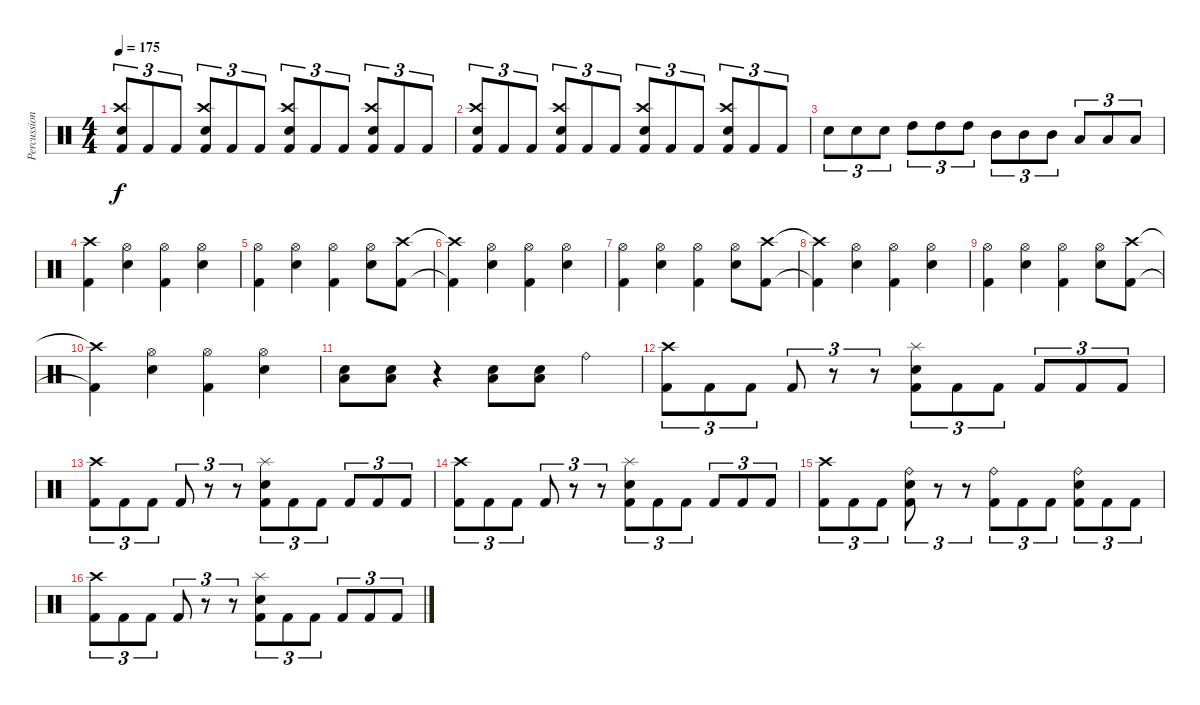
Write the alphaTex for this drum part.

\track ("Percussion" "Percussion") {instrument percussion}
\staff {score}
\articulation defaults
\ts (4 4)
\tempo 175
\clef neutral
\ks c
("Kick (hit) 2" "Crash high (hit)" "Electric Snare (hit)").8{tu (3 2) dy f} "Kick (hit) 2".8{tu (3 2)} "Kick (hit) 2".8{tu (3 2)} ("Kick (hit) 2" "Crash high (hit)" "Electric Snare (hit)").8{tu (3 2)} "Kick (hit) 2".8{tu (3 2)} "Kick (hit) 2".8{tu (3 2)} ("Kick (hit) 2" "Crash high (hit)" "Electric Snare (hit)").8{tu (3 2)} "Kick (hit) 2".8{tu (3 2)} "Kick (hit) 2".8{tu (3 2)} ("Kick (hit) 2" "Crash high (hit)" "Electric Snare (hit)").8{tu (3 2)} "Kick (hit) 2".8{tu (3 2)} "Kick (hit) 2".8{tu (3 2)} |
("Kick (hit) 2" "Crash high (hit)" "Electric Snare (hit)").8{tu (3 2)} "Kick (hit) 2".8{tu (3 2)} "Kick (hit) 2".8{tu (3 2)} ("Kick (hit) 2" "Crash high (hit)" "Electric Snare (hit)").8{tu (3 2)} "Kick (hit) 2".8{tu (3 2)} "Kick (hit) 2".8{tu (3 2)} ("Kick (hit) 2" "Crash high (hit)" "Electric Snare (hit)").8{tu (3 2)} "Kick (hit) 2".8{tu (3 2)} "Kick (hit) 2".8{tu (3 2)} ("Kick (hit) 2" "Crash high (hit)" "Electric Snare (hit)").8{tu (3 2)} "Kick (hit) 2".8{tu (3 2)} "Kick (hit) 2".8{tu (3 2)} |
"Electric Snare (hit)".8{tu (3 2)} "Electric Snare (hit)".8{tu (3 2)} "Electric Snare (hit)".8{tu (3 2)} "High Tom (hit)".8{tu (3 2)} "High Tom (hit)".8{tu (3 2)} "High Tom (hit)".8{tu (3 2)} "Mid Tom (hit)".8{tu (3 2)} "Mid Tom (hit)".8{tu (3 2)} "Mid Tom (hit)".8{tu (3 2)} "Low Tom (hit)".8{tu (3 2)} "Low Tom (hit)".8{tu (3 2)} "Low Tom (hit)".8{tu (3 2)} |
("Kick (hit) 2" "Crash high (hit)").4 ("Hi-Hat (open)" "Electric Snare (hit)").4 ("Hi-Hat (open)" "Kick (hit) 2").4 ("Hi-Hat (open)" "Electric Snare (hit)").4 |
("Hi-Hat (open)" "Kick (hit) 2").4 ("Hi-Hat (open)" "Electric Snare (hit)").4 ("Hi-Hat (open)" "Kick (hit) 2").4 ("Hi-Hat (open)" "Electric Snare (hit)").8 ("Kick (hit) 2" "Crash high (hit)").8 |
("Kick (hit) 2"{t} "Crash high (hit)"{t}).4 ("Hi-Hat (open)" "Electric Snare (hit)").4 ("Hi-Hat (open)" "Kick (hit) 2").4 ("Hi-Hat (open)" "Electric Snare (hit)").4 |
("Hi-Hat (open)" "Kick (hit) 2").4 ("Hi-Hat (open)" "Electric Snare (hit)").4 ("Hi-Hat (open)" "Kick (hit) 2").4 ("Hi-Hat (open)" "Electric Snare (hit)").8 ("Kick (hit) 2" "Crash high (hit)").8 |
("Kick (hit) 2"{t} "Crash high (hit)"{t}).4 ("Hi-Hat (open)" "Electric Snare (hit)").4 ("Hi-Hat (open)" "Kick (hit) 2").4 ("Hi-Hat (open)" "Electric Snare (hit)").4 |
("Hi-Hat (open)" "Kick (hit) 2").4 ("Hi-Hat (open)" "Electric Snare (hit)").4 ("Hi-Hat (open)" "Kick (hit) 2").4 ("Hi-Hat (open)" "Electric Snare (hit)").8 ("Kick (hit) 2" "Crash high (hit)").8 |
("Kick (hit) 2"{t} "Crash high (hit)"{t}).4 ("Hi-Hat (open)" "Electric Snare (hit)").4 ("Hi-Hat (open)" "Kick (hit) 2").4 ("Hi-Hat (open)" "Electric Snare (hit)").4 |
("Electric Snare (hit)" "Low Floor Tom (hit)").8 ("Electric Snare (hit)" "Low Floor Tom (hit)").8 r.4 ("Electric Snare (hit)" "Low Floor Tom (hit)").8 ("Electric Snare (hit)" "Low Floor Tom (hit)").8 "Ride (bell)".4 |
("Kick (hit) 2" "Crash high (hit)").8{tu (3 2)} "Kick (hit) 2".8{tu (3 2)} "Kick (hit) 2".8{tu (3 2)} "Kick (hit) 2".8{tu (3 2)} r.8{tu (3 2)} r.8{tu (3 2)} ("Splash (hit)" "Kick (hit) 2" "Electric Snare (hit)").8{tu (3 2)} "Kick (hit) 2".8{tu (3 2)} "Kick (hit) 2".8{tu (3 2)} "Kick (hit) 2".8{tu (3 2)} "Kick (hit) 2".8{tu (3 2)} "Kick (hit) 2".8{tu (3 2)} |
("Kick (hit) 2" "Crash high (hit)").8{tu (3 2)} "Kick (hit) 2".8{tu (3 2)} "Kick (hit) 2".8{tu (3 2)} "Kick (hit) 2".8{tu (3 2)} r.8{tu (3 2)} r.8{tu (3 2)} ("Splash (hit)" "Kick (hit) 2" "Electric Snare (hit)").8{tu (3 2)} "Kick (hit) 2".8{tu (3 2)} "Kick (hit) 2".8{tu (3 2)} "Kick (hit) 2".8{tu (3 2)} "Kick (hit) 2".8{tu (3 2)} "Kick (hit) 2".8{tu (3 2)} |
("Kick (hit) 2" "Crash high (hit)").8{tu (3 2)} "Kick (hit) 2".8{tu (3 2)} "Kick (hit) 2".8{tu (3 2)} "Kick (hit) 2".8{tu (3 2)} r.8{tu (3 2)} r.8{tu (3 2)} ("Splash (hit)" "Kick (hit) 2" "Electric Snare (hit)").8{tu (3 2)} "Kick (hit) 2".8{tu (3 2)} "Kick (hit) 2".8{tu (3 2)} "Kick (hit) 2".8{tu (3 2)} "Kick (hit) 2".8{tu (3 2)} "Kick (hit) 2".8{tu (3 2)} |
("Kick (hit) 2" "Crash high (hit)").8{tu (3 2)} "Kick (hit) 2".8{tu (3 2)} "Kick (hit) 2".8{tu (3 2)} ("Ride (bell)" "Electric Snare (hit)" "Kick (hit) 2").8{tu (3 2)} r.8{tu (3 2)} r.8{tu (3 2)} ("Ride (bell)" "Kick (hit) 2").8{tu (3 2)} "Kick (hit) 2".8{tu (3 2)} "Kick (hit) 2".8{tu (3 2)} ("Ride (bell)" "Electric Snare (hit)" "Kick (hit) 2").8{tu (3 2)} "Kick (hit) 2".8{tu (3 2)} "Kick (hit) 2".8{tu (3 2)} |
("Kick (hit) 2" "Crash high (hit)").8{tu (3 2)} "Kick (hit) 2".8{tu (3 2)} "Kick (hit) 2".8{tu (3 2)} "Kick (hit) 2".8{tu (3 2)} r.8{tu (3 2)} r.8{tu (3 2)} ("Splash (hit)" "Kick (hit) 2" "Electric Snare (hit)").8{tu (3 2)} "Kick (hit) 2".8{tu (3 2)} "Kick (hit) 2".8{tu (3 2)} "Kick (hit) 2".8{tu (3 2)} "Kick (hit) 2".8{tu (3 2)} "Kick (hit) 2".8{tu (3 2)}
